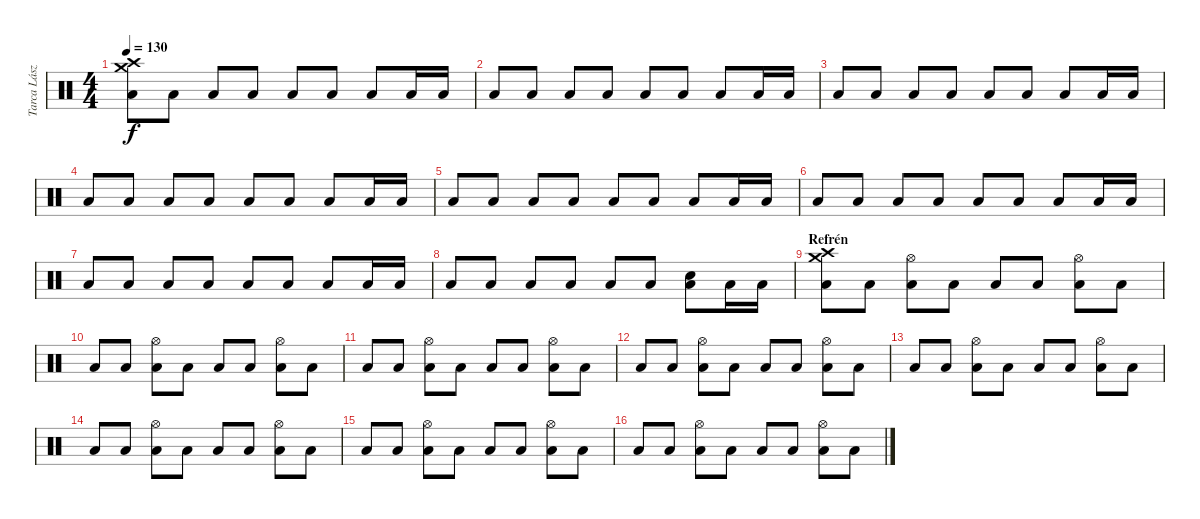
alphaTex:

\track ("Tarca László" "Tarca Lász") {instrument percussion}
\staff {score}
\articulation defaults
\ts (4 4)
\tempo 130
\clef neutral
\ks c
("Crash high (hit)" "Crash medium (hit)" "Low Tom (hit)").8{dy f} "Low Tom (hit)".8 "Low Tom (hit)".8 "Low Tom (hit)".8 "Low Tom (hit)".8 "Low Tom (hit)".8 "Low Tom (hit)".8 "Low Tom (hit)".16 "Low Tom (hit)".16 |
"Low Tom (hit)".8 "Low Tom (hit)".8 "Low Tom (hit)".8 "Low Tom (hit)".8 "Low Tom (hit)".8 "Low Tom (hit)".8 "Low Tom (hit)".8 "Low Tom (hit)".16 "Low Tom (hit)".16 |
"Low Tom (hit)".8 "Low Tom (hit)".8 "Low Tom (hit)".8 "Low Tom (hit)".8 "Low Tom (hit)".8 "Low Tom (hit)".8 "Low Tom (hit)".8 "Low Tom (hit)".16 "Low Tom (hit)".16 |
"Low Tom (hit)".8 "Low Tom (hit)".8 "Low Tom (hit)".8 "Low Tom (hit)".8 "Low Tom (hit)".8 "Low Tom (hit)".8 "Low Tom (hit)".8 "Low Tom (hit)".16 "Low Tom (hit)".16 |
"Low Tom (hit)".8 "Low Tom (hit)".8 "Low Tom (hit)".8 "Low Tom (hit)".8 "Low Tom (hit)".8 "Low Tom (hit)".8 "Low Tom (hit)".8 "Low Tom (hit)".16 "Low Tom (hit)".16 |
"Low Tom (hit)".8 "Low Tom (hit)".8 "Low Tom (hit)".8 "Low Tom (hit)".8 "Low Tom (hit)".8 "Low Tom (hit)".8 "Low Tom (hit)".8 "Low Tom (hit)".16 "Low Tom (hit)".16 |
"Low Tom (hit)".8 "Low Tom (hit)".8 "Low Tom (hit)".8 "Low Tom (hit)".8 "Low Tom (hit)".8 "Low Tom (hit)".8 "Low Tom (hit)".8 "Low Tom (hit)".16 "Low Tom (hit)".16 |
"Low Tom (hit)".8 "Low Tom (hit)".8 "Low Tom (hit)".8 "Low Tom (hit)".8 "Low Tom (hit)".8 "Low Tom (hit)".8 ("Snare (hit) 2" "Low Tom (hit)").8 "Low Tom (hit)".16 "Low Tom (hit)".16 |
\section ("" "Refrén")
("Crash high (hit)" "Crash medium (hit)" "Low Tom (hit)").8 "Low Tom (hit)".8 ("Low Tom (hit)" "Hi-Hat (open)").8 "Low Tom (hit)".8 "Low Tom (hit)".8 "Low Tom (hit)".8 ("Low Tom (hit)" "Hi-Hat (open)").8 "Low Tom (hit)".8 |
"Low Tom (hit)".8 "Low Tom (hit)".8 ("Low Tom (hit)" "Hi-Hat (open)").8 "Low Tom (hit)".8 "Low Tom (hit)".8 "Low Tom (hit)".8 ("Low Tom (hit)" "Hi-Hat (open)").8 "Low Tom (hit)".8 |
"Low Tom (hit)".8 "Low Tom (hit)".8 ("Low Tom (hit)" "Hi-Hat (open)").8 "Low Tom (hit)".8 "Low Tom (hit)".8 "Low Tom (hit)".8 ("Low Tom (hit)" "Hi-Hat (open)").8 "Low Tom (hit)".8 |
"Low Tom (hit)".8 "Low Tom (hit)".8 ("Low Tom (hit)" "Hi-Hat (open)").8 "Low Tom (hit)".8 "Low Tom (hit)".8 "Low Tom (hit)".8 ("Low Tom (hit)" "Hi-Hat (open)").8 "Low Tom (hit)".8 |
"Low Tom (hit)".8 "Low Tom (hit)".8 ("Low Tom (hit)" "Hi-Hat (open)").8 "Low Tom (hit)".8 "Low Tom (hit)".8 "Low Tom (hit)".8 ("Low Tom (hit)" "Hi-Hat (open)").8 "Low Tom (hit)".8 |
"Low Tom (hit)".8 "Low Tom (hit)".8 ("Low Tom (hit)" "Hi-Hat (open)").8 "Low Tom (hit)".8 "Low Tom (hit)".8 "Low Tom (hit)".8 ("Low Tom (hit)" "Hi-Hat (open)").8 "Low Tom (hit)".8 |
"Low Tom (hit)".8 "Low Tom (hit)".8 ("Low Tom (hit)" "Hi-Hat (open)").8 "Low Tom (hit)".8 "Low Tom (hit)".8 "Low Tom (hit)".8 ("Low Tom (hit)" "Hi-Hat (open)").8 "Low Tom (hit)".8 |
"Low Tom (hit)".8 "Low Tom (hit)".8 ("Low Tom (hit)" "Hi-Hat (open)").8 "Low Tom (hit)".8 "Low Tom (hit)".8 "Low Tom (hit)".8 ("Low Tom (hit)" "Hi-Hat (open)").8 "Low Tom (hit)".8
